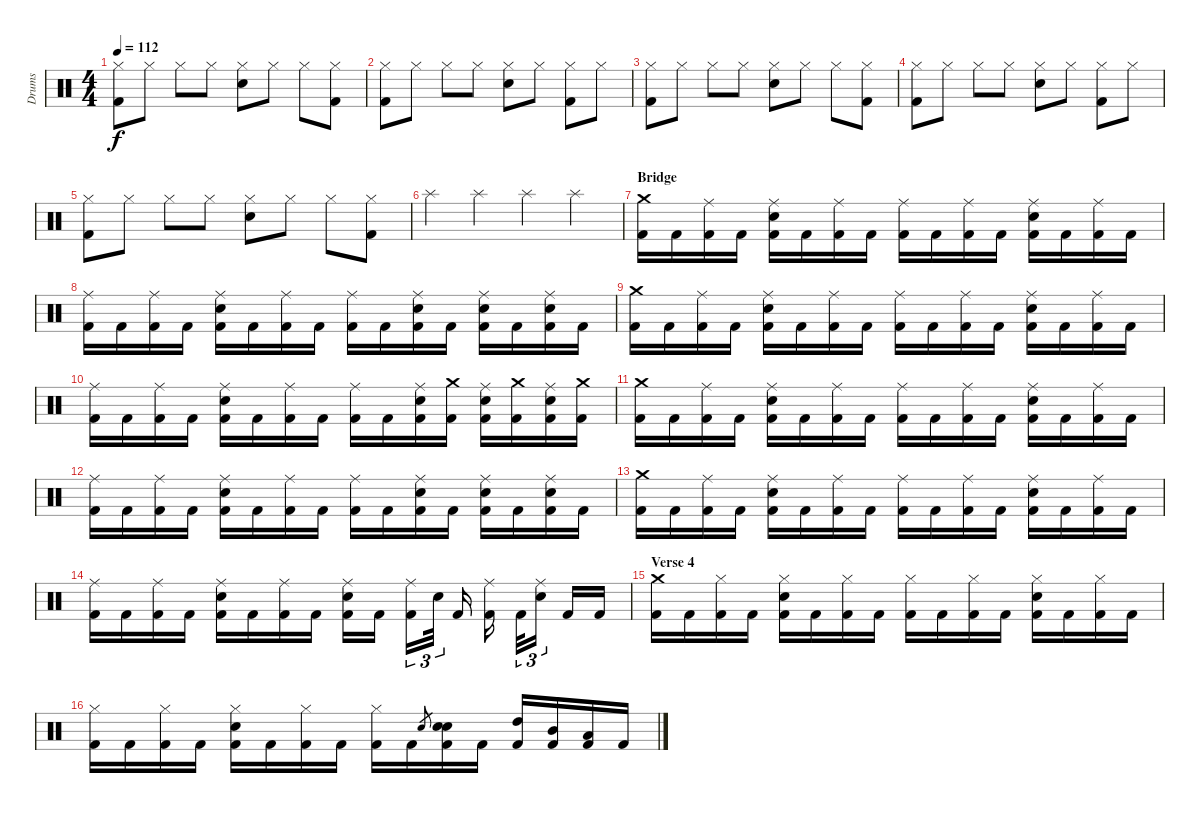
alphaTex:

\track ("Drums" "Drums") {instrument percussion}
\staff {score}
\articulation defaults
\ts (4 4)
\tempo 112
\clef neutral
\ks c
("Kick (hit) 2" "Hi-Hat (closed)").8{dy f} "Hi-Hat (closed)".8 "Hi-Hat (closed)".8 "Hi-Hat (closed)".8 ("Snare (hit) 2" "Hi-Hat (closed)").8 "Hi-Hat (closed)".8 "Hi-Hat (closed)".8 ("Kick (hit) 2" "Hi-Hat (closed)").8 |
("Kick (hit) 2" "Hi-Hat (closed)").8 "Hi-Hat (closed)".8 "Hi-Hat (closed)".8 "Hi-Hat (closed)".8 ("Snare (hit) 2" "Hi-Hat (closed)").8 "Hi-Hat (closed)".8 ("Kick (hit) 2" "Hi-Hat (closed)").8 "Hi-Hat (closed)".8 |
("Kick (hit) 2" "Hi-Hat (closed)").8 "Hi-Hat (closed)".8 "Hi-Hat (closed)".8 "Hi-Hat (closed)".8 ("Snare (hit) 2" "Hi-Hat (closed)").8 "Hi-Hat (closed)".8 "Hi-Hat (closed)".8 ("Kick (hit) 2" "Hi-Hat (closed)").8 |
("Kick (hit) 2" "Hi-Hat (closed)").8 "Hi-Hat (closed)".8 "Hi-Hat (closed)".8 "Hi-Hat (closed)".8 ("Snare (hit) 2" "Hi-Hat (closed)").8 "Hi-Hat (closed)".8 ("Kick (hit) 2" "Hi-Hat (closed)").8 "Hi-Hat (closed)".8 |
("Kick (hit) 2" "Hi-Hat (closed)").8 "Hi-Hat (closed)".8 "Hi-Hat (closed)".8 "Hi-Hat (closed)".8 ("Snare (hit) 2" "Hi-Hat (closed)").8 "Hi-Hat (closed)".8 "Hi-Hat (closed)".8 ("Kick (hit) 2" "Hi-Hat (closed)").8 |
"Splash (hit)".4 "Splash (hit)".4 "Splash (hit)".4 "Splash (hit)".4 |
\section ("" "Bridge")
("Kick (hit) 2" "Crash medium (hit)").16 "Kick (hit) 2".16 ("Kick (hit) 2" "Ride (middle)").16 "Kick (hit) 2".16 ("Kick (hit) 2" "Snare (hit) 2" "Ride (middle)").16 "Kick (hit) 2".16 ("Kick (hit) 2" "Ride (middle)").16 "Kick (hit) 2".16 ("Kick (hit) 2" "Ride (middle)").16 "Kick (hit) 2".16 ("Kick (hit) 2" "Ride (middle)").16 "Kick (hit) 2".16 ("Kick (hit) 2" "Snare (hit) 2" "Ride (middle)").16 "Kick (hit) 2".16 ("Kick (hit) 2" "Ride (middle)").16 "Kick (hit) 2".16 |
("Kick (hit) 2" "Ride (middle)").16 "Kick (hit) 2".16 ("Kick (hit) 2" "Ride (middle)").16 "Kick (hit) 2".16 ("Kick (hit) 2" "Snare (hit) 2" "Ride (middle)").16 "Kick (hit) 2".16 ("Kick (hit) 2" "Ride (middle)").16 "Kick (hit) 2".16 ("Kick (hit) 2" "Ride (middle)").16 "Kick (hit) 2".16 ("Kick (hit) 2" "Snare (hit) 2" "Ride (middle)").16 "Kick (hit) 2".16 ("Kick (hit) 2" "Snare (hit) 2" "Ride (middle)").16 "Kick (hit) 2".16 ("Kick (hit) 2" "Snare (hit) 2" "Ride (middle)").16 "Kick (hit) 2".16 |
("Kick (hit) 2" "Crash medium (hit)").16 "Kick (hit) 2".16 ("Kick (hit) 2" "Ride (middle)").16 "Kick (hit) 2".16 ("Kick (hit) 2" "Snare (hit) 2" "Ride (middle)").16 "Kick (hit) 2".16 ("Kick (hit) 2" "Ride (middle)").16 "Kick (hit) 2".16 ("Kick (hit) 2" "Ride (middle)").16 "Kick (hit) 2".16 ("Kick (hit) 2" "Ride (middle)").16 "Kick (hit) 2".16 ("Kick (hit) 2" "Snare (hit) 2" "Ride (middle)").16 "Kick (hit) 2".16 ("Kick (hit) 2" "Ride (middle)").16 "Kick (hit) 2".16 |
("Kick (hit) 2" "Ride (middle)").16 "Kick (hit) 2".16 ("Kick (hit) 2" "Ride (middle)").16 "Kick (hit) 2".16 ("Kick (hit) 2" "Snare (hit) 2" "Ride (middle)").16 "Kick (hit) 2".16 ("Kick (hit) 2" "Ride (middle)").16 "Kick (hit) 2".16 ("Kick (hit) 2" "Ride (middle)").16 "Kick (hit) 2".16 ("Kick (hit) 2" "Snare (hit) 2" "Ride (middle)").16 ("Kick (hit) 2" "Crash medium (hit)").16 ("Kick (hit) 2" "Snare (hit) 2" "Ride (middle)").16 ("Kick (hit) 2" "Crash medium (hit)").16 ("Kick (hit) 2" "Snare (hit) 2" "Ride (middle)").16 ("Kick (hit) 2" "Crash medium (hit)").16 |
("Kick (hit) 2" "Crash medium (hit)").16 "Kick (hit) 2".16 ("Kick (hit) 2" "Ride (middle)").16 "Kick (hit) 2".16 ("Kick (hit) 2" "Snare (hit) 2" "Ride (middle)").16 "Kick (hit) 2".16 ("Kick (hit) 2" "Ride (middle)").16 "Kick (hit) 2".16 ("Kick (hit) 2" "Ride (middle)").16 "Kick (hit) 2".16 ("Kick (hit) 2" "Ride (middle)").16 "Kick (hit) 2".16 ("Kick (hit) 2" "Snare (hit) 2" "Ride (middle)").16 "Kick (hit) 2".16 ("Kick (hit) 2" "Ride (middle)").16 "Kick (hit) 2".16 |
("Kick (hit) 2" "Ride (middle)").16 "Kick (hit) 2".16 ("Kick (hit) 2" "Ride (middle)").16 "Kick (hit) 2".16 ("Kick (hit) 2" "Snare (hit) 2" "Ride (middle)").16 "Kick (hit) 2".16 ("Kick (hit) 2" "Ride (middle)").16 "Kick (hit) 2".16 ("Kick (hit) 2" "Ride (middle)").16 "Kick (hit) 2".16 ("Kick (hit) 2" "Snare (hit) 2" "Ride (middle)").16 "Kick (hit) 2".16 ("Kick (hit) 2" "Snare (hit) 2" "Ride (middle)").16 "Kick (hit) 2".16 ("Kick (hit) 2" "Snare (hit) 2" "Ride (middle)").16 "Kick (hit) 2".16 |
("Kick (hit) 2" "Crash medium (hit)").16 "Kick (hit) 2".16 ("Kick (hit) 2" "Ride (middle)").16 "Kick (hit) 2".16 ("Kick (hit) 2" "Snare (hit) 2" "Ride (middle)").16 "Kick (hit) 2".16 ("Kick (hit) 2" "Ride (middle)").16 "Kick (hit) 2".16 ("Kick (hit) 2" "Ride (middle)").16 "Kick (hit) 2".16 ("Kick (hit) 2" "Ride (middle)").16 "Kick (hit) 2".16 ("Kick (hit) 2" "Snare (hit) 2" "Ride (middle)").16 "Kick (hit) 2".16 ("Kick (hit) 2" "Ride (middle)").16 "Kick (hit) 2".16 |
("Kick (hit) 2" "Ride (middle)").16 "Kick (hit) 2".16 ("Kick (hit) 2" "Ride (middle)").16 "Kick (hit) 2".16 ("Kick (hit) 2" "Snare (hit) 2" "Ride (middle)").16 "Kick (hit) 2".16 ("Kick (hit) 2" "Ride (middle)").16 "Kick (hit) 2".16 ("Kick (hit) 2" "Ride (middle)" "Snare (hit) 2").16 "Kick (hit) 2".16{beam splitsecondary} ("Kick (hit) 2" "Ride (middle)").16{tu (3 2)} "Snare (hit) 2".32{tu (3 2) beam splitsecondary} "Kick (hit) 2".16 ("Kick (hit) 2" "Ride (middle)").16{beam splitsecondary} "Kick (hit) 2".32{tu (3 2)} ("Snare (hit) 2" "Ride (middle)").16{tu (3 2) beam splitsecondary} "Kick (hit) 2".16 "Kick (hit) 2".16 |
\section ("" "Verse 4")
("Kick (hit) 2" "Crash medium (hit)").16 "Kick (hit) 2".16 ("Kick (hit) 2" "Hi-Hat (closed)").16 "Kick (hit) 2".16 ("Kick (hit) 2" "Hi-Hat (closed)" "Snare (hit) 2").16 "Kick (hit) 2".16 ("Kick (hit) 2" "Hi-Hat (closed)").16 "Kick (hit) 2".16 ("Kick (hit) 2" "Hi-Hat (closed)").16 "Kick (hit) 2".16 ("Kick (hit) 2" "Hi-Hat (closed)").16 "Kick (hit) 2".16 ("Kick (hit) 2" "Hi-Hat (closed)" "Snare (hit) 2").16 "Kick (hit) 2".16 ("Kick (hit) 2" "Hi-Hat (closed)").16 "Kick (hit) 2".16 |
("Kick (hit) 2" "Hi-Hat (closed)").16 "Kick (hit) 2".16 ("Kick (hit) 2" "Hi-Hat (closed)").16 "Kick (hit) 2".16 ("Kick (hit) 2" "Hi-Hat (closed)" "Snare (hit) 2").16 "Kick (hit) 2".16 ("Kick (hit) 2" "Hi-Hat (closed)").16 "Kick (hit) 2".16 ("Kick (hit) 2" "Hi-Hat (closed)").16 "Kick (hit) 2".16 "Snare (hit) 2".8{gr} ("Kick (hit) 2" "Snare (hit) 2" "Snare (hit) 2").16 "Kick (hit) 2".16 ("Kick (hit) 2" "High Tom (hit)").16 ("Kick (hit) 2" "Mid Tom (hit)").16 ("Kick (hit) 2" "Low Tom (hit)").16 "Kick (hit) 2".16
